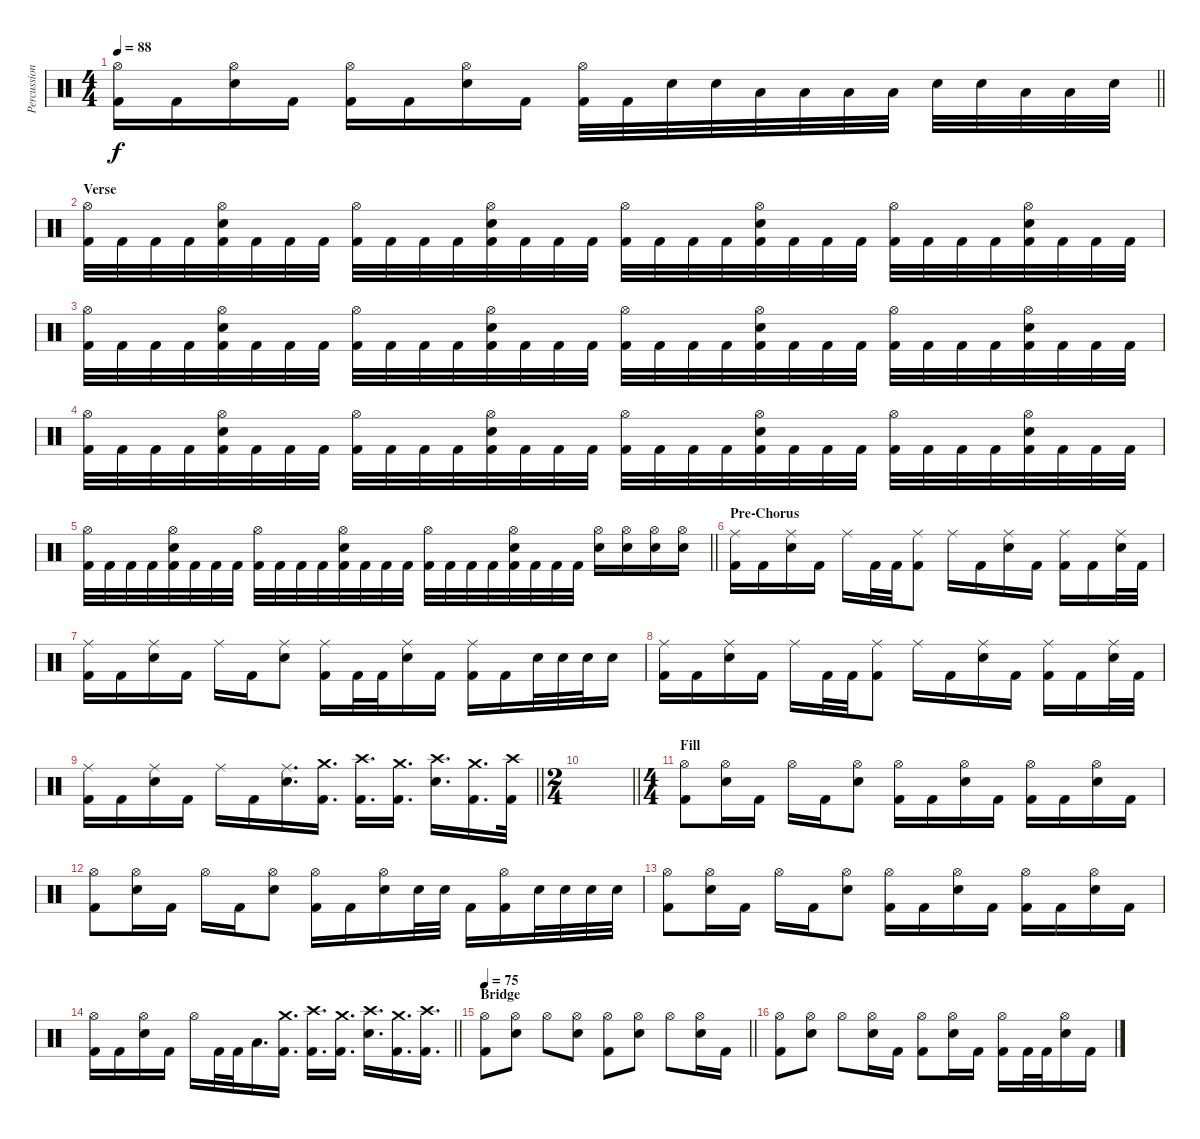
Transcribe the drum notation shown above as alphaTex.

\track ("Percussion" "Percussion") {instrument percussion}
\staff {score}
\articulation defaults
\ts (4 4)
\tempo 88
\clef neutral
\barLineRight lightlight
\ks c
("Hi-Hat (open)" "Kick (hit) 2").16{dy f} "Kick (hit) 2".16 ("Hi-Hat (open)" "Snare (hit) 2").16 "Kick (hit) 2".16 ("Hi-Hat (open)" "Kick (hit) 2").16 "Kick (hit) 2".16 ("Hi-Hat (open)" "Snare (hit) 2").16 "Kick (hit) 2".16 ("Hi-Hat (open)" "Kick (hit) 2").32 "Kick (hit) 2".32 "Snare (hit) 2".32 "Snare (hit) 2".32 "Low Tom (hit)".32 "Low Tom (hit)".32 "Low Floor Tom (hit)".32 "Low Floor Tom (hit)".32 "Snare (hit) 2".32 "Snare (hit) 2".32 "Low Tom (hit)".32 "Low Tom (hit)".32 "Snare (hit) 2".32 |
\section ("" "Verse")
("Hi-Hat (open)" "Kick (hit) 2").32 "Kick (hit) 2".32 "Kick (hit) 2".32 "Kick (hit) 2".32 ("Hi-Hat (open)" "Snare (hit) 2" "Kick (hit) 2").32 "Kick (hit) 2".32 "Kick (hit) 2".32 "Kick (hit) 2".32 ("Hi-Hat (open)" "Kick (hit) 2").32 "Kick (hit) 2".32 "Kick (hit) 2".32 "Kick (hit) 2".32 ("Hi-Hat (open)" "Snare (hit) 2" "Kick (hit) 2").32 "Kick (hit) 2".32 "Kick (hit) 2".32 "Kick (hit) 2".32 ("Hi-Hat (open)" "Kick (hit) 2").32 "Kick (hit) 2".32 "Kick (hit) 2".32 "Kick (hit) 2".32 ("Hi-Hat (open)" "Snare (hit) 2" "Kick (hit) 2").32 "Kick (hit) 2".32 "Kick (hit) 2".32 "Kick (hit) 2".32 ("Hi-Hat (open)" "Kick (hit) 2").32 "Kick (hit) 2".32 "Kick (hit) 2".32 "Kick (hit) 2".32 ("Hi-Hat (open)" "Snare (hit) 2" "Kick (hit) 2").32 "Kick (hit) 2".32 "Kick (hit) 2".32 "Kick (hit) 2".32 |
("Hi-Hat (open)" "Kick (hit) 2").32 "Kick (hit) 2".32 "Kick (hit) 2".32 "Kick (hit) 2".32 ("Hi-Hat (open)" "Snare (hit) 2" "Kick (hit) 2").32 "Kick (hit) 2".32 "Kick (hit) 2".32 "Kick (hit) 2".32 ("Hi-Hat (open)" "Kick (hit) 2").32 "Kick (hit) 2".32 "Kick (hit) 2".32 "Kick (hit) 2".32 ("Hi-Hat (open)" "Snare (hit) 2" "Kick (hit) 2").32 "Kick (hit) 2".32 "Kick (hit) 2".32 "Kick (hit) 2".32 ("Hi-Hat (open)" "Kick (hit) 2").32 "Kick (hit) 2".32 "Kick (hit) 2".32 "Kick (hit) 2".32 ("Hi-Hat (open)" "Snare (hit) 2" "Kick (hit) 2").32 "Kick (hit) 2".32 "Kick (hit) 2".32 "Kick (hit) 2".32 ("Hi-Hat (open)" "Kick (hit) 2").32 "Kick (hit) 2".32 "Kick (hit) 2".32 "Kick (hit) 2".32 ("Hi-Hat (open)" "Snare (hit) 2" "Kick (hit) 2").32 "Kick (hit) 2".32 "Kick (hit) 2".32 "Kick (hit) 2".32 |
("Hi-Hat (open)" "Kick (hit) 2").32 "Kick (hit) 2".32 "Kick (hit) 2".32 "Kick (hit) 2".32 ("Hi-Hat (open)" "Snare (hit) 2" "Kick (hit) 2").32 "Kick (hit) 2".32 "Kick (hit) 2".32 "Kick (hit) 2".32 ("Hi-Hat (open)" "Kick (hit) 2").32 "Kick (hit) 2".32 "Kick (hit) 2".32 "Kick (hit) 2".32 ("Hi-Hat (open)" "Snare (hit) 2" "Kick (hit) 2").32 "Kick (hit) 2".32 "Kick (hit) 2".32 "Kick (hit) 2".32 ("Hi-Hat (open)" "Kick (hit) 2").32 "Kick (hit) 2".32 "Kick (hit) 2".32 "Kick (hit) 2".32 ("Hi-Hat (open)" "Snare (hit) 2" "Kick (hit) 2").32 "Kick (hit) 2".32 "Kick (hit) 2".32 "Kick (hit) 2".32 ("Hi-Hat (open)" "Kick (hit) 2").32 "Kick (hit) 2".32 "Kick (hit) 2".32 "Kick (hit) 2".32 ("Hi-Hat (open)" "Snare (hit) 2" "Kick (hit) 2").32 "Kick (hit) 2".32 "Kick (hit) 2".32 "Kick (hit) 2".32 |
\barLineRight lightlight
("Hi-Hat (open)" "Kick (hit) 2").32 "Kick (hit) 2".32 "Kick (hit) 2".32 "Kick (hit) 2".32 ("Hi-Hat (open)" "Snare (hit) 2" "Kick (hit) 2").32 "Kick (hit) 2".32 "Kick (hit) 2".32 "Kick (hit) 2".32 ("Hi-Hat (open)" "Kick (hit) 2").32 "Kick (hit) 2".32 "Kick (hit) 2".32 "Kick (hit) 2".32 ("Hi-Hat (open)" "Snare (hit) 2" "Kick (hit) 2").32 "Kick (hit) 2".32 "Kick (hit) 2".32 "Kick (hit) 2".32 ("Hi-Hat (open)" "Kick (hit) 2").32 "Kick (hit) 2".32 "Kick (hit) 2".32 "Kick (hit) 2".32 ("Hi-Hat (open)" "Snare (hit) 2" "Kick (hit) 2").32 "Kick (hit) 2".32 "Kick (hit) 2".32 "Kick (hit) 2".32 ("Hi-Hat (open)" "Snare (hit) 2").16 ("Hi-Hat (open)" "Snare (hit) 2").16 ("Hi-Hat (open)" "Snare (hit) 2").16 ("Hi-Hat (open)" "Snare (hit) 2").16 |
\section ("" "Pre-Chorus")
("Ride (middle)" "Kick (hit) 2").16 "Kick (hit) 2".16 ("Ride (middle)" "Snare (hit) 2").16 "Kick (hit) 2".16 "Ride (middle)".16 "Kick (hit) 2".32 "Kick (hit) 2".32 ("Ride (middle)" "Kick (hit) 2").8 "Ride (middle)".16 "Kick (hit) 2".16 ("Ride (middle)" "Snare (hit) 2").16 "Kick (hit) 2".16 ("Ride (middle)" "Kick (hit) 2").16 "Kick (hit) 2".16 ("Ride (middle)" "Snare (hit) 2").32 "Kick (hit) 2".32 |
("Ride (middle)" "Kick (hit) 2").16 "Kick (hit) 2".16 ("Ride (middle)" "Snare (hit) 2").16 "Kick (hit) 2".16 "Ride (middle)".16 "Kick (hit) 2".16 ("Ride (middle)" "Snare (hit) 2").8 ("Ride (middle)" "Kick (hit) 2").16 "Kick (hit) 2".32 "Kick (hit) 2".32 ("Ride (middle)" "Snare (hit) 2").16 "Kick (hit) 2".16 ("Ride (middle)" "Kick (hit) 2").16 "Kick (hit) 2".16 "Snare (hit) 2".32 "Snare (hit) 2".32 "Snare (hit) 2".32 "Snare (hit) 2".16 |
("Ride (middle)" "Kick (hit) 2").16 "Kick (hit) 2".16 ("Ride (middle)" "Snare (hit) 2").16 "Kick (hit) 2".16 "Ride (middle)".16 "Kick (hit) 2".32 "Kick (hit) 2".32 ("Ride (middle)" "Kick (hit) 2").8 "Ride (middle)".16 "Kick (hit) 2".16 ("Ride (middle)" "Snare (hit) 2").16 "Kick (hit) 2".16 ("Ride (middle)" "Kick (hit) 2").16 "Kick (hit) 2".16 ("Ride (middle)" "Snare (hit) 2").32 "Kick (hit) 2".32 |
\barLineRight lightlight
("Ride (middle)" "Kick (hit) 2").16 "Kick (hit) 2".16 ("Ride (middle)" "Snare (hit) 2").16 "Kick (hit) 2".16 "Ride (middle)".16 "Kick (hit) 2".16 ("Ride (middle)" "Snare (hit) 2").16{d} ("Crash medium (hit)" "Kick (hit) 2").16{d} ("Crash high (hit)" "Kick (hit) 2").16{d} ("Crash medium (hit)" "Kick (hit) 2").16{d} ("Crash high (hit)" "Snare (hit) 2").16{d} ("Crash medium (hit)" "Kick (hit) 2").16{d} ("Crash high (hit)" "Kick (hit) 2").32 |
\ts (2 4)
\barLineRight lightlight
|
\ts (4 4)
\section ("" "Fill")
("Hi-Hat (open)" "Kick (hit) 2").8 ("Hi-Hat (open)" "Snare (hit) 2").16 "Kick (hit) 2".16 "Hi-Hat (open)".16 "Kick (hit) 2".16 ("Hi-Hat (open)" "Snare (hit) 2").8 ("Hi-Hat (open)" "Kick (hit) 2").16 "Kick (hit) 2".16 ("Hi-Hat (open)" "Snare (hit) 2").16 "Kick (hit) 2".16 ("Hi-Hat (open)" "Kick (hit) 2").16 "Kick (hit) 2".16 ("Hi-Hat (open)" "Snare (hit) 2").16 "Kick (hit) 2".16 |
("Hi-Hat (open)" "Kick (hit) 2").8 ("Hi-Hat (open)" "Snare (hit) 2").16 "Kick (hit) 2".16 "Hi-Hat (open)".16 "Kick (hit) 2".16 ("Hi-Hat (open)" "Snare (hit) 2").8 ("Hi-Hat (open)" "Kick (hit) 2").16 "Kick (hit) 2".16 ("Hi-Hat (open)" "Snare (hit) 2").16 "Snare (hit) 2".32 "Snare (hit) 2".32 "Kick (hit) 2".16 ("Hi-Hat (open)" "Kick (hit) 2").16 "Snare (hit) 2".32 "Snare (hit) 2".32 "Snare (hit) 2".32 "Snare (hit) 2".32 |
("Hi-Hat (open)" "Kick (hit) 2").8 ("Hi-Hat (open)" "Snare (hit) 2").16 "Kick (hit) 2".16 "Hi-Hat (open)".16 "Kick (hit) 2".16 ("Hi-Hat (open)" "Snare (hit) 2").8 ("Hi-Hat (open)" "Kick (hit) 2").16 "Kick (hit) 2".16 ("Hi-Hat (open)" "Snare (hit) 2").16 "Kick (hit) 2".16 ("Hi-Hat (open)" "Kick (hit) 2").16 "Kick (hit) 2".16 ("Hi-Hat (open)" "Snare (hit) 2").16 "Kick (hit) 2".16 |
\barLineRight lightlight
("Hi-Hat (open)" "Kick (hit) 2").16 "Kick (hit) 2".16 ("Hi-Hat (open)" "Snare (hit) 2").16 "Kick (hit) 2".16 "Hi-Hat (open)".16 "Kick (hit) 2".32 "Kick (hit) 2".32 "Low Tom (hit)".16{d} ("Crash medium (hit)" "Kick (hit) 2").16{d} ("Crash high (hit)" "Kick (hit) 2").16{d} ("Crash medium (hit)" "Kick (hit) 2").16{d} ("Crash high (hit)" "Snare (hit) 2").16{d} ("Crash medium (hit)" "Kick (hit) 2").16{d} ("Crash high (hit)" "Kick (hit) 2").16{d} |
\section ("" "Bridge")
\tempo 75
\barLineRight lightlight
("Hi-Hat (open)" "Kick (hit) 2").8 ("Hi-Hat (open)" "Snare (hit) 2").8 "Hi-Hat (open)".8 ("Hi-Hat (open)" "Snare (hit) 2").8 ("Hi-Hat (open)" "Kick (hit) 2").8 ("Hi-Hat (open)" "Snare (hit) 2").8 "Hi-Hat (open)".8 ("Hi-Hat (open)" "Snare (hit) 2").16 "Kick (hit) 2".16 |
("Hi-Hat (open)" "Kick (hit) 2").8 ("Hi-Hat (open)" "Snare (hit) 2").8 "Hi-Hat (open)".8 ("Hi-Hat (open)" "Snare (hit) 2").16 "Kick (hit) 2".16 ("Hi-Hat (open)" "Kick (hit) 2").8 ("Hi-Hat (open)" "Snare (hit) 2").16 "Kick (hit) 2".16 ("Hi-Hat (open)" "Kick (hit) 2").16 "Kick (hit) 2".32 "Kick (hit) 2".32 ("Hi-Hat (open)" "Snare (hit) 2").16 "Kick (hit) 2".16
